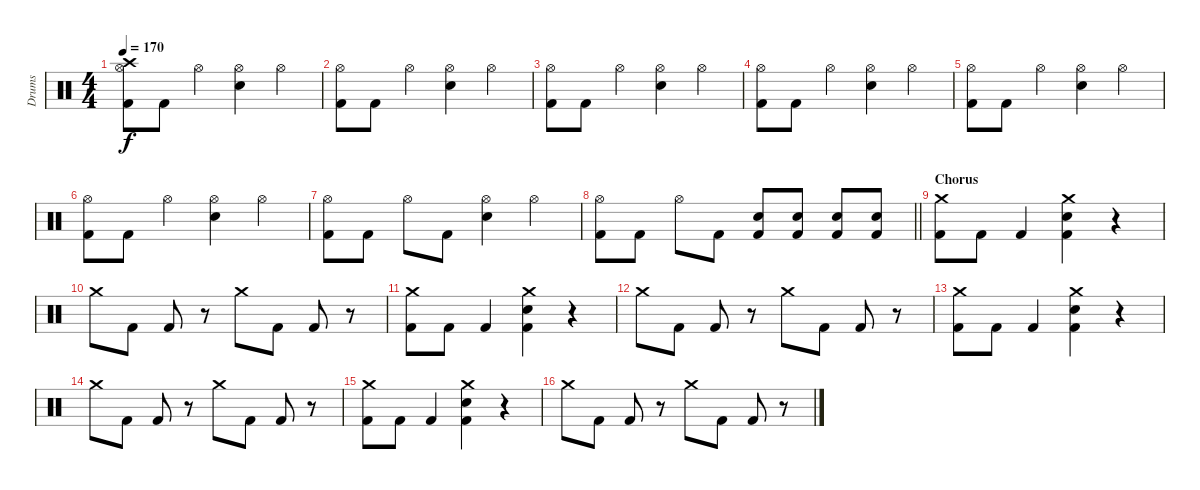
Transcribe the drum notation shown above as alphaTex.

\track ("Drums" "Drums") {instrument percussion}
\staff {score}
\articulation defaults
\ts (4 4)
\tempo 170
\clef neutral
\ks c
("Hi-Hat (open)" "Crash high (hit)" "Kick (hit) 2").8{dy f} "Kick (hit) 2".8 "Hi-Hat (open)".4 ("Hi-Hat (open)" "Electric Snare (hit)").4 "Hi-Hat (open)".4 |
("Hi-Hat (open)" "Kick (hit) 2").8 "Kick (hit) 2".8 "Hi-Hat (open)".4 ("Hi-Hat (open)" "Electric Snare (hit)").4 "Hi-Hat (open)".4 |
("Hi-Hat (open)" "Kick (hit) 2").8 "Kick (hit) 2".8 "Hi-Hat (open)".4 ("Hi-Hat (open)" "Electric Snare (hit)").4 "Hi-Hat (open)".4 |
("Hi-Hat (open)" "Kick (hit) 2").8 "Kick (hit) 2".8 "Hi-Hat (open)".4 ("Hi-Hat (open)" "Electric Snare (hit)").4 "Hi-Hat (open)".4 |
("Hi-Hat (open)" "Kick (hit) 2").8 "Kick (hit) 2".8 "Hi-Hat (open)".4 ("Hi-Hat (open)" "Electric Snare (hit)").4 "Hi-Hat (open)".4 |
("Hi-Hat (open)" "Kick (hit) 2").8 "Kick (hit) 2".8 "Hi-Hat (open)".4 ("Hi-Hat (open)" "Electric Snare (hit)").4 "Hi-Hat (open)".4 |
("Hi-Hat (open)" "Kick (hit) 2").8 "Kick (hit) 2".8 "Hi-Hat (open)".8 "Kick (hit) 2".8 ("Hi-Hat (open)" "Electric Snare (hit)").4 "Hi-Hat (open)".4 |
\barLineRight lightlight
("Hi-Hat (open)" "Kick (hit) 2").8 "Kick (hit) 2".8 "Hi-Hat (open)".8 "Kick (hit) 2".8 ("Electric Snare (hit)" "Kick (hit) 2").8 ("Electric Snare (hit)" "Kick (hit) 2").8 ("Electric Snare (hit)" "Kick (hit) 2").8 ("Electric Snare (hit)" "Kick (hit) 2").8 |
\section ("" "Chorus")
("Crash medium (hit)" "Kick (hit) 2").8 "Kick (hit) 2".8 "Kick (hit) 2".4 ("Crash medium (hit)" "Electric Snare (hit)" "Kick (hit) 2").4 r.4 |
"Crash medium (hit)".8 "Kick (hit) 2".8 "Kick (hit) 2".8 r.8 "Crash medium (hit)".8 "Kick (hit) 2".8 "Kick (hit) 2".8 r.8 |
("Crash medium (hit)" "Kick (hit) 2").8 "Kick (hit) 2".8 "Kick (hit) 2".4 ("Crash medium (hit)" "Electric Snare (hit)" "Kick (hit) 2").4 r.4 |
"Crash medium (hit)".8 "Kick (hit) 2".8 "Kick (hit) 2".8 r.8 "Crash medium (hit)".8 "Kick (hit) 2".8 "Kick (hit) 2".8 r.8 |
("Crash medium (hit)" "Kick (hit) 2").8 "Kick (hit) 2".8 "Kick (hit) 2".4 ("Crash medium (hit)" "Electric Snare (hit)" "Kick (hit) 2").4 r.4 |
"Crash medium (hit)".8 "Kick (hit) 2".8 "Kick (hit) 2".8 r.8 "Crash medium (hit)".8 "Kick (hit) 2".8 "Kick (hit) 2".8 r.8 |
("Crash medium (hit)" "Kick (hit) 2").8 "Kick (hit) 2".8 "Kick (hit) 2".4 ("Crash medium (hit)" "Electric Snare (hit)" "Kick (hit) 2").4 r.4 |
"Crash medium (hit)".8 "Kick (hit) 2".8 "Kick (hit) 2".8 r.8 "Crash medium (hit)".8 "Kick (hit) 2".8 "Kick (hit) 2".8 r.8
